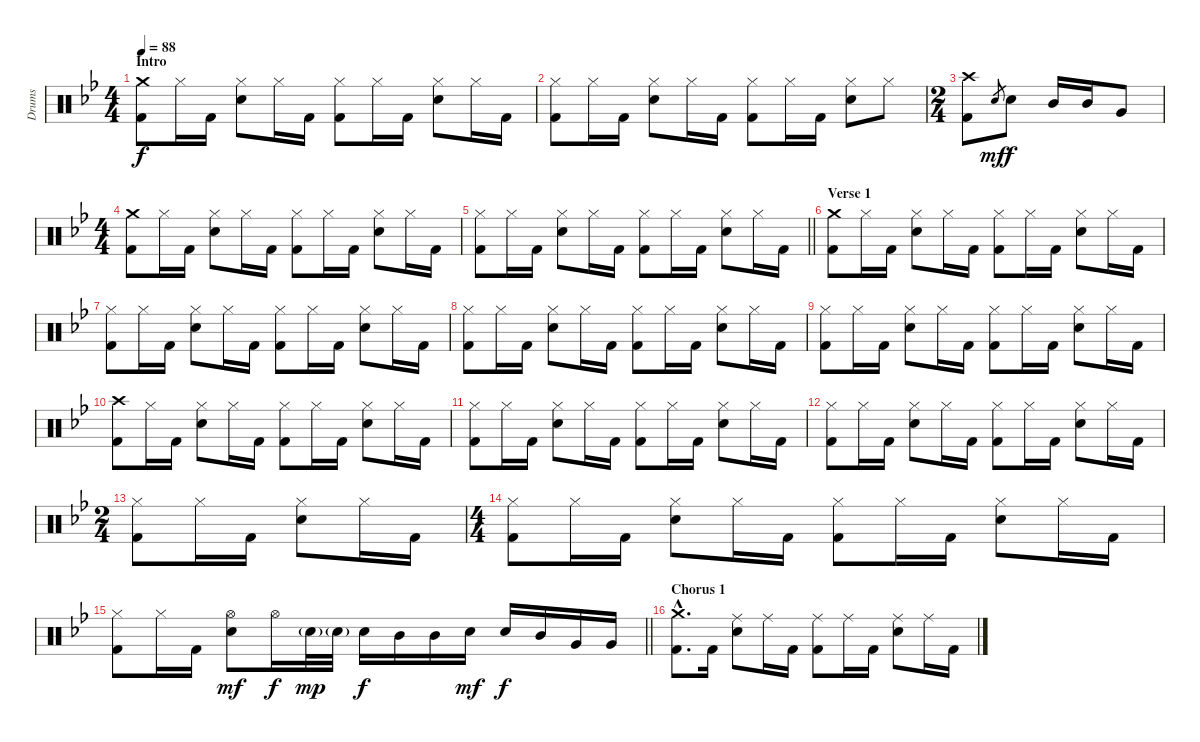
\track ("Drums" "Drums") {instrument percussion}
\staff {score}
\articulation defaults
\ts (4 4)
\section ("" "Intro")
\tempo 88
\clef neutral
\ks gminor
("Crash medium (hit)" "Kick (hit) 2").8{dy f} "Hi-Hat (closed)".16 "Kick (hit) 2".16 ("Hi-Hat (closed)" "Electric Snare (hit)").8 "Hi-Hat (closed)".16 "Kick (hit) 2".16 ("Hi-Hat (closed)" "Kick (hit) 2").8 "Hi-Hat (closed)".16 "Kick (hit) 2".16 ("Hi-Hat (closed)" "Electric Snare (hit)").8 "Hi-Hat (closed)".16 "Kick (hit) 2".16 |
("Hi-Hat (closed)" "Kick (hit) 2").8 "Hi-Hat (closed)".16 "Kick (hit) 2".16 ("Hi-Hat (closed)" "Electric Snare (hit)").8 "Hi-Hat (closed)".16 "Kick (hit) 2".16 ("Hi-Hat (closed)" "Kick (hit) 2").8 "Hi-Hat (closed)".16 "Kick (hit) 2".16 ("Hi-Hat (closed)" "Electric Snare (hit)").8 "Hi-Hat (closed)".8 |
\ts (2 4)
("Crash high (hit)" "Kick (hit) 2").8 "Electric Snare (hit)".8{gr dy mf} "Electric Snare (hit)".8{dy f} "Mid Tom (hit)".16 "Mid Tom (hit)".16 "Very Low Tom (hit)".8 |
\ts (4 4)
("Crash medium (hit)" "Kick (hit) 2").8 "Hi-Hat (closed)".16 "Kick (hit) 2".16 ("Hi-Hat (closed)" "Electric Snare (hit)").8 "Hi-Hat (closed)".16 "Kick (hit) 2".16 ("Hi-Hat (closed)" "Kick (hit) 2").8 "Hi-Hat (closed)".16 "Kick (hit) 2".16 ("Hi-Hat (closed)" "Electric Snare (hit)").8 "Hi-Hat (closed)".16 "Kick (hit) 2".16 |
\barLineRight lightlight
("Hi-Hat (closed)" "Kick (hit) 2").8 "Hi-Hat (closed)".16 "Kick (hit) 2".16 ("Hi-Hat (closed)" "Electric Snare (hit)").8 "Hi-Hat (closed)".16 "Kick (hit) 2".16 ("Hi-Hat (closed)" "Kick (hit) 2").8 "Hi-Hat (closed)".16 "Kick (hit) 2".16 ("Hi-Hat (closed)" "Electric Snare (hit)").8 "Hi-Hat (closed)".16 "Kick (hit) 2".16 |
\section ("" "Verse 1")
("Crash medium (hit)" "Kick (hit) 2").8 "Hi-Hat (closed)".16 "Kick (hit) 2".16 ("Hi-Hat (closed)" "Electric Snare (hit)").8 "Hi-Hat (closed)".16 "Kick (hit) 2".16 ("Hi-Hat (closed)" "Kick (hit) 2").8 "Hi-Hat (closed)".16 "Kick (hit) 2".16 ("Hi-Hat (closed)" "Electric Snare (hit)").8 "Hi-Hat (closed)".16 "Kick (hit) 2".16 |
("Hi-Hat (closed)" "Kick (hit) 2").8 "Hi-Hat (closed)".16 "Kick (hit) 2".16 ("Hi-Hat (closed)" "Electric Snare (hit)").8 "Hi-Hat (closed)".16 "Kick (hit) 2".16 ("Hi-Hat (closed)" "Kick (hit) 2").8 "Hi-Hat (closed)".16 "Kick (hit) 2".16 ("Hi-Hat (closed)" "Electric Snare (hit)").8 "Hi-Hat (closed)".16 "Kick (hit) 2".16 |
("Hi-Hat (closed)" "Kick (hit) 2").8 "Hi-Hat (closed)".16 "Kick (hit) 2".16 ("Hi-Hat (closed)" "Electric Snare (hit)").8 "Hi-Hat (closed)".16 "Kick (hit) 2".16 ("Hi-Hat (closed)" "Kick (hit) 2").8 "Hi-Hat (closed)".16 "Kick (hit) 2".16 ("Hi-Hat (closed)" "Electric Snare (hit)").8 "Hi-Hat (closed)".16 "Kick (hit) 2".16 |
("Hi-Hat (closed)" "Kick (hit) 2").8 "Hi-Hat (closed)".16 "Kick (hit) 2".16 ("Hi-Hat (closed)" "Electric Snare (hit)").8 "Hi-Hat (closed)".16 "Kick (hit) 2".16 ("Hi-Hat (closed)" "Kick (hit) 2").8 "Hi-Hat (closed)".16 "Kick (hit) 2".16 ("Hi-Hat (closed)" "Electric Snare (hit)").8 "Hi-Hat (closed)".16 "Kick (hit) 2".16 |
("Crash high (hit)" "Kick (hit) 2").8 "Hi-Hat (closed)".16 "Kick (hit) 2".16 ("Hi-Hat (closed)" "Electric Snare (hit)").8 "Hi-Hat (closed)".16 "Kick (hit) 2".16 ("Hi-Hat (closed)" "Kick (hit) 2").8 "Hi-Hat (closed)".16 "Kick (hit) 2".16 ("Hi-Hat (closed)" "Electric Snare (hit)").8 "Hi-Hat (closed)".16 "Kick (hit) 2".16 |
("Hi-Hat (closed)" "Kick (hit) 2").8 "Hi-Hat (closed)".16 "Kick (hit) 2".16 ("Hi-Hat (closed)" "Electric Snare (hit)").8 "Hi-Hat (closed)".16 "Kick (hit) 2".16 ("Hi-Hat (closed)" "Kick (hit) 2").8 "Hi-Hat (closed)".16 "Kick (hit) 2".16 ("Hi-Hat (closed)" "Electric Snare (hit)").8 "Hi-Hat (closed)".16 "Kick (hit) 2".16 |
("Hi-Hat (closed)" "Kick (hit) 2").8 "Hi-Hat (closed)".16 "Kick (hit) 2".16 ("Hi-Hat (closed)" "Electric Snare (hit)").8 "Hi-Hat (closed)".16 "Kick (hit) 2".16 ("Hi-Hat (closed)" "Kick (hit) 2").8 "Hi-Hat (closed)".16 "Kick (hit) 2".16 ("Hi-Hat (closed)" "Electric Snare (hit)").8 "Hi-Hat (closed)".16 "Kick (hit) 2".16 |
\ts (2 4)
("Hi-Hat (closed)" "Kick (hit) 2").8 "Hi-Hat (closed)".16 "Kick (hit) 2".16 ("Hi-Hat (closed)" "Electric Snare (hit)").8 "Hi-Hat (closed)".16 "Kick (hit) 2".16 |
\ts (4 4)
("Hi-Hat (closed)" "Kick (hit) 2").8 "Hi-Hat (closed)".16 "Kick (hit) 2".16 ("Hi-Hat (closed)" "Electric Snare (hit)").8 "Hi-Hat (closed)".16 "Kick (hit) 2".16 ("Hi-Hat (closed)" "Kick (hit) 2").8 "Hi-Hat (closed)".16 "Kick (hit) 2".16 ("Hi-Hat (closed)" "Electric Snare (hit)").8 "Hi-Hat (closed)".16 "Kick (hit) 2".16 |
\barLineRight lightlight
("Hi-Hat (closed)" "Kick (hit) 2").8 "Hi-Hat (closed)".16 "Kick (hit) 2".16 ("Hi-Hat (open)" "Electric Snare (hit)").8{dy mf} "Hi-Hat (open)".16{dy f} "Electric Snare (hit)"{g}.32{dy mp} "Electric Snare (hit)"{g}.32 "Electric Snare (hit)".16{dy f} "Mid Tom (hit)".16 "Mid Tom (hit)".16 "Electric Snare (hit)".16{dy mf} "Electric Snare (hit)".16{dy f} "Mid Tom (hit)".16 "Very Low Tom (hit)".16 "Very Low Tom (hit)".16 |
\section ("" "Chorus 1")
("Crash medium (hit)"{hac} "Kick (hit) 2"{hac}).8{d} "Kick (hit) 2".16 ("Ride (middle)" "Electric Snare (hit)").8 "Ride (middle)".16 "Kick (hit) 2".16 ("Ride (middle)" "Kick (hit) 2").8 "Ride (middle)".16 "Kick (hit) 2".16 ("Ride (middle)" "Electric Snare (hit)").8 "Ride (middle)".16 "Kick (hit) 2".16
